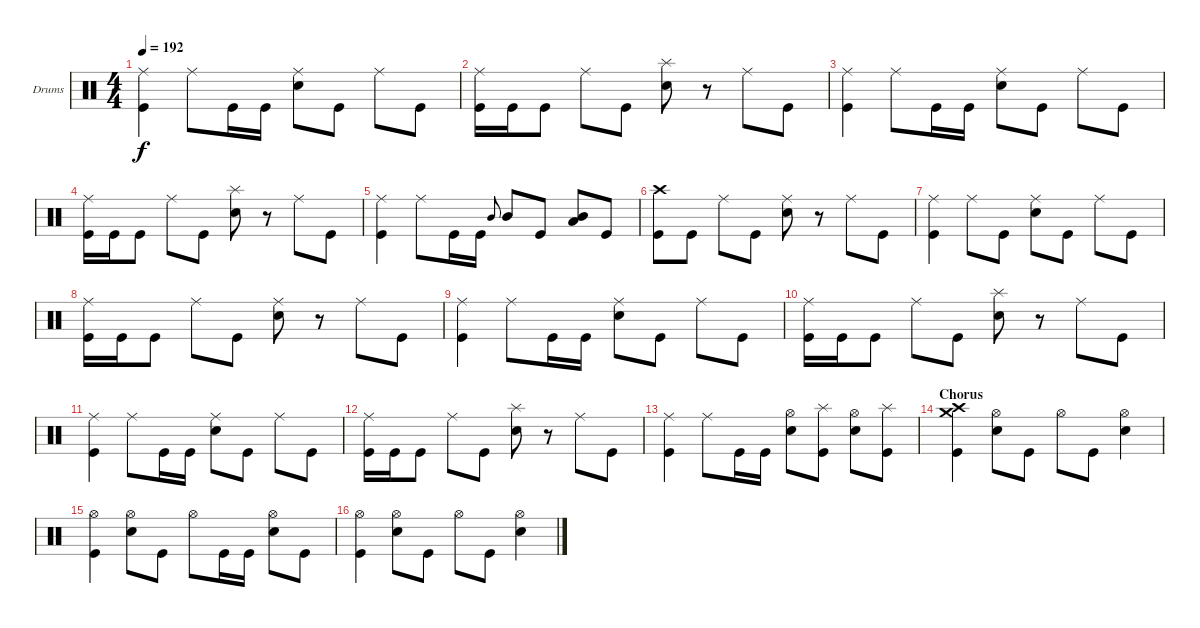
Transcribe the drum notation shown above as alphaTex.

\bracketExtendMode groupsimilarinstruments
\firstSystemTrackNameOrientation horizontal
\otherSystemsTrackNameOrientation horizontal
\track ("Corey Friedlander" "Drums") {instrument percussion}
\staff {score}
\articulation defaults
\ts (4 4)
\tempo 192
\clef neutral
\ks aminor
("Kick (hit)" "Ride (middle)").4{dy f} "Ride (middle)".8 "Kick (hit)".16 "Kick (hit)".16 ("Snare (hit) 2" "Ride (middle)").8 "Kick (hit)".8 "Ride (middle)".8 "Kick (hit)".8 |
("Kick (hit)" "Ride (middle)").16 "Kick (hit)".16 "Kick (hit)".8 "Ride (middle)".8 "Kick (hit)".8 ("Snare (hit) 2" "Splash (hit)").8 r.8 "Ride (middle)".8 "Kick (hit)".8 |
("Kick (hit)" "Ride (middle)").4 "Ride (middle)".8 "Kick (hit)".16 "Kick (hit)".16 ("Snare (hit) 2" "Ride (middle)").8 "Kick (hit)".8 "Ride (middle)".8 "Kick (hit)".8 |
("Kick (hit)" "Ride (middle)").16 "Kick (hit)".16 "Kick (hit)".8 "Ride (middle)".8 "Kick (hit)".8 ("Snare (hit) 2" "Splash (hit)").8 r.8 "Ride (middle)".8 "Kick (hit)".8 |
("Kick (hit)" "Ride (middle)").4 "Ride (middle)".8 "Kick (hit)".16 "Kick (hit)".16 "Mid Tom (hit)".8{gr onbeat} "Mid Tom (hit)".8 "Kick (hit)".8 ("Mid Tom (hit)" "Low Tom (hit)").8 "Kick (hit)".8 |
("Kick (hit)" "Crash high (hit)").8 "Kick (hit)".8 "Ride (middle)".8 "Kick (hit)".8 ("Snare (hit) 2" "Ride (middle)").8 r.8 "Ride (middle)".8 "Kick (hit)".8 |
("Kick (hit)" "Ride (middle)").4 "Ride (middle)".8 "Kick (hit)".8 ("Snare (hit) 2" "Ride (middle)").8 "Kick (hit)".8 "Ride (middle)".8 "Kick (hit)".8 |
("Kick (hit)" "Ride (middle)").16 "Kick (hit)".16 "Kick (hit)".8 "Ride (middle)".8 "Kick (hit)".8 ("Snare (hit) 2" "Ride (middle)").8 r.8 "Ride (middle)".8 "Kick (hit)".8 |
("Kick (hit)" "Ride (middle)").4 "Ride (middle)".8 "Kick (hit)".16 "Kick (hit)".16 ("Snare (hit) 2" "Ride (middle)").8 "Kick (hit)".8 "Ride (middle)".8 "Kick (hit)".8 |
("Kick (hit)" "Ride (middle)").16 "Kick (hit)".16 "Kick (hit)".8 "Ride (middle)".8 "Kick (hit)".8 ("Snare (hit) 2" "Splash (hit)").8 r.8 "Ride (middle)".8 "Kick (hit)".8 |
("Kick (hit)" "Ride (middle)").4 "Ride (middle)".8 "Kick (hit)".16 "Kick (hit)".16 ("Snare (hit) 2" "Ride (middle)").8 "Kick (hit)".8 "Ride (middle)".8 "Kick (hit)".8 |
("Kick (hit)" "Ride (middle)").16 "Kick (hit)".16 "Kick (hit)".8 "Ride (middle)".8 "Kick (hit)".8 ("Snare (hit) 2" "Splash (hit)").8 r.8 "Ride (middle)".8 "Kick (hit)".8 |
("Kick (hit)" "Ride (middle)").4 "Ride (middle)".8 "Kick (hit)".16 "Kick (hit)".16 ("Snare (hit) 2" "Hi-Hat (open)").8 ("Kick (hit)" "Splash (hit)").8 ("Snare (hit) 2" "Hi-Hat (open)").8 ("Kick (hit)" "Splash (hit)").8 |
\section ("" "Chorus")
("Kick (hit)" "Crash medium (hit)" "Crash high (hit)").4 ("Snare (hit) 2" "Hi-Hat (open)").8 "Kick (hit)".8 "Hi-Hat (open)".8 "Kick (hit)".8 ("Snare (hit) 2" "Hi-Hat (open)").4 |
("Kick (hit)" "Hi-Hat (open)").4 ("Snare (hit) 2" "Hi-Hat (open)").8 "Kick (hit)".8 "Hi-Hat (open)".8 "Kick (hit)".16 "Kick (hit)".16 ("Snare (hit) 2" "Hi-Hat (open)").8 "Kick (hit)".8 |
("Kick (hit)" "Hi-Hat (open)").4 ("Snare (hit) 2" "Hi-Hat (open)").8 "Kick (hit)".8 "Hi-Hat (open)".8 "Kick (hit)".8 ("Snare (hit) 2" "Hi-Hat (open)").4
